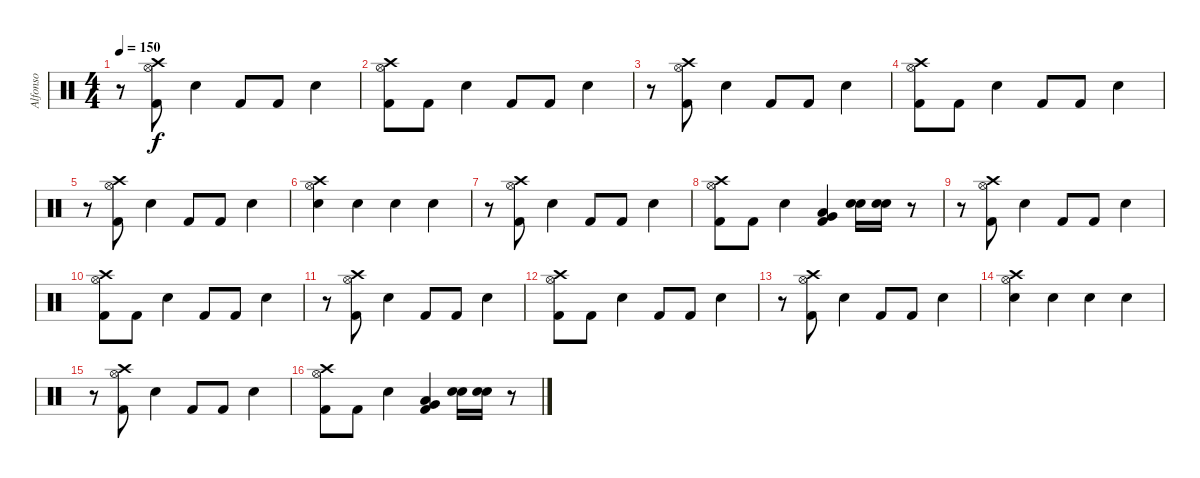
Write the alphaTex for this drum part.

\track ("Alfonso" "Alfonso") {instrument percussion}
\staff {score}
\articulation defaults
\ts (4 4)
\tempo 150
\clef neutral
\ks c
r.8{dy f} ("Crash high (hit)" "Hi-Hat (open)" "Kick (hit) 2").8 "Electric Snare (hit)".4 "Kick (hit) 2".8 "Kick (hit) 2".8 "Electric Snare (hit)".4 |
("Crash high (hit)" "Hi-Hat (open)" "Kick (hit) 2").8 "Kick (hit) 2".8 "Electric Snare (hit)".4 "Kick (hit) 2".8 "Kick (hit) 2".8 "Electric Snare (hit)".4 |
r.8 ("Hi-Hat (open)" "Crash high (hit)" "Kick (hit) 2").8 "Electric Snare (hit)".4 "Kick (hit) 2".8 "Kick (hit) 2".8 "Electric Snare (hit)".4 |
("Crash high (hit)" "Hi-Hat (open)" "Kick (hit) 2").8 "Kick (hit) 2".8 "Electric Snare (hit)".4 "Kick (hit) 2".8 "Kick (hit) 2".8 "Electric Snare (hit)".4 |
r.8 ("Crash high (hit)" "Hi-Hat (open)" "Kick (hit) 2").8 "Electric Snare (hit)".4 "Kick (hit) 2".8 "Kick (hit) 2".8 "Electric Snare (hit)".4 |
("Hi-Hat (open)" "Crash high (hit)" "Electric Snare (hit)").4 "Electric Snare (hit)".4 "Electric Snare (hit)".4 "Electric Snare (hit)".4 |
r.8 ("Crash high (hit)" "Hi-Hat (open)" "Kick (hit) 2").8 "Electric Snare (hit)".4 "Kick (hit) 2".8 "Kick (hit) 2".8 "Electric Snare (hit)".4 |
("Crash high (hit)" "Hi-Hat (open)" "Kick (hit) 2").8 "Kick (hit) 2".8 "Electric Snare (hit)".4 ("Kick (hit) 2" "Very Low Tom (hit)" "Low Floor Tom (hit)").4 ("Snare (hit) 2" "Electric Snare (hit)").16 ("Snare (hit) 2" "Electric Snare (hit)").16 r.8 |
r.8 ("Crash high (hit)" "Hi-Hat (open)" "Kick (hit) 2").8 "Electric Snare (hit)".4 "Kick (hit) 2".8 "Kick (hit) 2".8 "Electric Snare (hit)".4 |
("Crash high (hit)" "Hi-Hat (open)" "Kick (hit) 2").8 "Kick (hit) 2".8 "Electric Snare (hit)".4 "Kick (hit) 2".8 "Kick (hit) 2".8 "Electric Snare (hit)".4 |
r.8 ("Crash high (hit)" "Hi-Hat (open)" "Kick (hit) 2").8 "Electric Snare (hit)".4 "Kick (hit) 2".8 "Kick (hit) 2".8 "Electric Snare (hit)".4 |
("Crash high (hit)" "Hi-Hat (open)" "Kick (hit) 2").8 "Kick (hit) 2".8 "Electric Snare (hit)".4 "Kick (hit) 2".8 "Kick (hit) 2".8 "Electric Snare (hit)".4 |
r.8 ("Crash high (hit)" "Hi-Hat (open)" "Kick (hit) 2").8 "Electric Snare (hit)".4 "Kick (hit) 2".8 "Kick (hit) 2".8 "Electric Snare (hit)".4 |
("Crash high (hit)" "Hi-Hat (open)" "Electric Snare (hit)").4 "Electric Snare (hit)".4 "Electric Snare (hit)".4 "Electric Snare (hit)".4 |
r.8 ("Crash high (hit)" "Hi-Hat (open)" "Kick (hit) 2").8 "Electric Snare (hit)".4 "Kick (hit) 2".8 "Kick (hit) 2".8 "Electric Snare (hit)".4 |
("Crash high (hit)" "Hi-Hat (open)" "Kick (hit) 2").8 "Kick (hit) 2".8 "Electric Snare (hit)".4 ("Kick (hit) 2" "Very Low Tom (hit)" "Low Floor Tom (hit)").4 ("Snare (hit) 2" "Electric Snare (hit)").16 ("Snare (hit) 2" "Electric Snare (hit)").16 r.8
